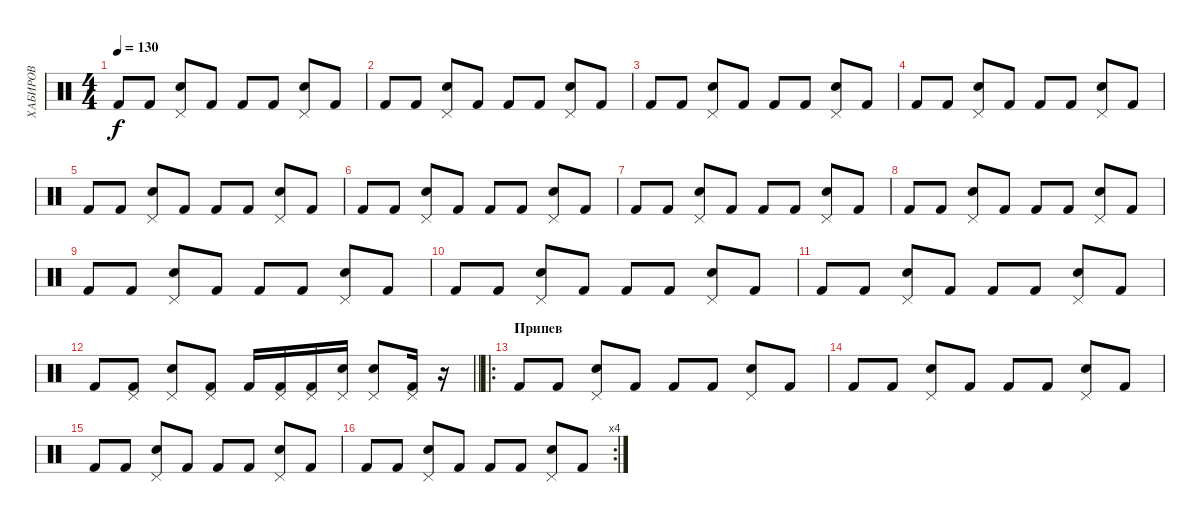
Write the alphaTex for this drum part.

\track ("ХАБИРОВ" "ХАБИРОВ") {instrument percussion}
\staff {score}
\articulation defaults
\ts (4 4)
\tempo 130
\clef neutral
\ks c "Kick (hit) 2".8{dy f} "Kick (hit) 2".8
("Snare (hit) 2" "Pedal Hi-Hat (hit)").8 "Kick (hit) 2".8 "Kick (hit) 2".8 "Kick (hit) 2".8 ("Snare (hit) 2" "Pedal Hi-Hat (hit)").8 "Kick (hit) 2".8 |
"Kick (hit) 2".8 "Kick (hit) 2".8 ("Snare (hit) 2" "Pedal Hi-Hat (hit)").8 "Kick (hit) 2".8 "Kick (hit) 2".8 "Kick (hit) 2".8 ("Snare (hit) 2" "Pedal Hi-Hat (hit)").8 "Kick (hit) 2".8 |
"Kick (hit) 2".8 "Kick (hit) 2".8 ("Snare (hit) 2" "Pedal Hi-Hat (hit)").8 "Kick (hit) 2".8 "Kick (hit) 2".8 "Kick (hit) 2".8 ("Snare (hit) 2" "Pedal Hi-Hat (hit)").8 "Kick (hit) 2".8 |
"Kick (hit) 2".8 "Kick (hit) 2".8 ("Snare (hit) 2" "Pedal Hi-Hat (hit)").8 "Kick (hit) 2".8 "Kick (hit) 2".8 "Kick (hit) 2".8 ("Snare (hit) 2" "Pedal Hi-Hat (hit)").8 "Kick (hit) 2".8 |
"Kick (hit) 2".8 "Kick (hit) 2".8 ("Snare (hit) 2" "Pedal Hi-Hat (hit)").8 "Kick (hit) 2".8 "Kick (hit) 2".8 "Kick (hit) 2".8 ("Snare (hit) 2" "Pedal Hi-Hat (hit)").8 "Kick (hit) 2".8 |
"Kick (hit) 2".8 "Kick (hit) 2".8 ("Snare (hit) 2" "Pedal Hi-Hat (hit)").8 "Kick (hit) 2".8 "Kick (hit) 2".8 "Kick (hit) 2".8 ("Snare (hit) 2" "Pedal Hi-Hat (hit)").8 "Kick (hit) 2".8 |
"Kick (hit) 2".8 "Kick (hit) 2".8 ("Snare (hit) 2" "Pedal Hi-Hat (hit)").8 "Kick (hit) 2".8 "Kick (hit) 2".8 "Kick (hit) 2".8 ("Snare (hit) 2" "Pedal Hi-Hat (hit)").8 "Kick (hit) 2".8 |
"Kick (hit) 2".8 "Kick (hit) 2".8 ("Snare (hit) 2" "Pedal Hi-Hat (hit)").8 "Kick (hit) 2".8 "Kick (hit) 2".8 "Kick (hit) 2".8 ("Snare (hit) 2" "Pedal Hi-Hat (hit)").8 "Kick (hit) 2".8 |
"Kick (hit) 2".8 "Kick (hit) 2".8 ("Snare (hit) 2" "Pedal Hi-Hat (hit)").8 "Kick (hit) 2".8 "Kick (hit) 2".8 "Kick (hit) 2".8 ("Snare (hit) 2" "Pedal Hi-Hat (hit)").8 "Kick (hit) 2".8 |
"Kick (hit) 2".8 "Kick (hit) 2".8 ("Snare (hit) 2" "Pedal Hi-Hat (hit)").8 "Kick (hit) 2".8 "Kick (hit) 2".8 "Kick (hit) 2".8 ("Snare (hit) 2" "Pedal Hi-Hat (hit)").8 "Kick (hit) 2".8 |
"Kick (hit) 2".8 "Kick (hit) 2".8 ("Snare (hit) 2" "Pedal Hi-Hat (hit)").8 "Kick (hit) 2".8 "Kick (hit) 2".8 "Kick (hit) 2".8 ("Snare (hit) 2" "Pedal Hi-Hat (hit)").8 "Kick (hit) 2".8 |
\barLineRight lightlight "Kick (hit) 2".8
("Kick (hit) 2" "Pedal Hi-Hat (hit)").8 ("Snare (hit) 2" "Pedal Hi-Hat (hit)").8 ("Kick (hit) 2" "Pedal Hi-Hat (hit)").8 "Kick (hit) 2".16 ("Kick (hit) 2" "Pedal Hi-Hat (hit)").16 ("Kick (hit) 2" "Pedal Hi-Hat (hit)").16 ("Snare (hit) 2" "Pedal Hi-Hat (hit)").16 ("Snare (hit) 2" "Pedal Hi-Hat (hit)").8 ("Kick (hit) 2" "Pedal Hi-Hat (hit)").16 r.16 |
\ro
\section ("" "Припев")
"Kick (hit) 2".8 "Kick (hit) 2".8 ("Snare (hit) 2" "Pedal Hi-Hat (hit)").8 "Kick (hit) 2".8 "Kick (hit) 2".8 "Kick (hit) 2".8 ("Snare (hit) 2" "Pedal Hi-Hat (hit)").8 "Kick (hit) 2".8 |
"Kick (hit) 2".8 "Kick (hit) 2".8 ("Snare (hit) 2" "Pedal Hi-Hat (hit)").8 "Kick (hit) 2".8 "Kick (hit) 2".8 "Kick (hit) 2".8 ("Snare (hit) 2" "Pedal Hi-Hat (hit)").8 "Kick (hit) 2".8 |
"Kick (hit) 2".8 "Kick (hit) 2".8 ("Snare (hit) 2" "Pedal Hi-Hat (hit)").8 "Kick (hit) 2".8 "Kick (hit) 2".8 "Kick (hit) 2".8 ("Snare (hit) 2" "Pedal Hi-Hat (hit)").8 "Kick (hit) 2".8 |
\rc 4 "Kick (hit) 2".8 "Kick (hit) 2".8
("Snare (hit) 2" "Pedal Hi-Hat (hit)").8 "Kick (hit) 2".8 "Kick (hit) 2".8 "Kick (hit) 2".8 ("Snare (hit) 2" "Pedal Hi-Hat (hit)").8 "Kick (hit) 2".8
